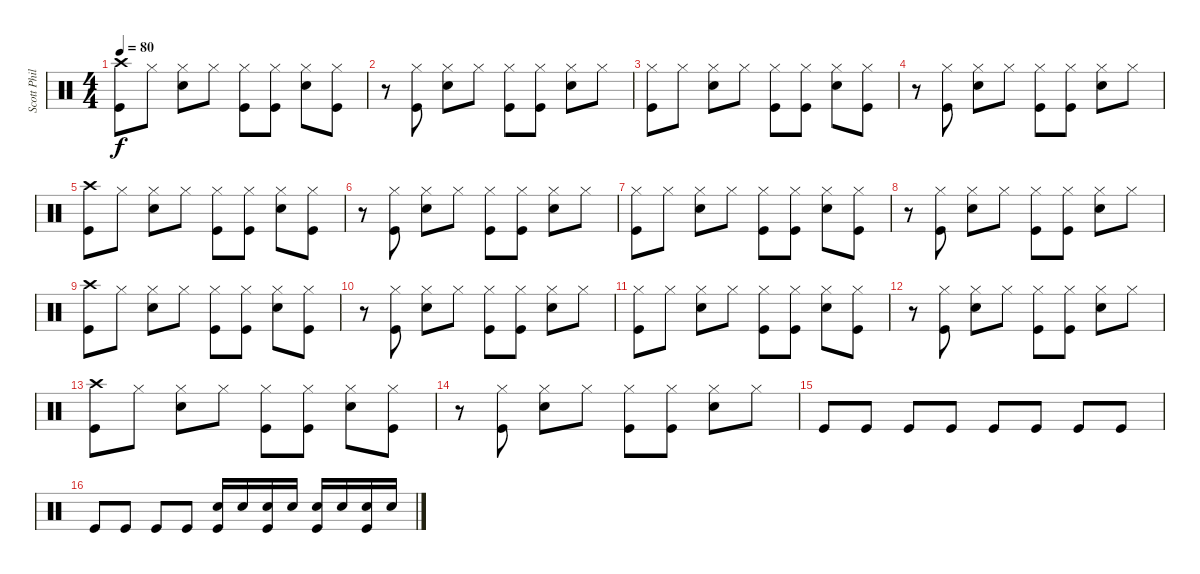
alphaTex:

\track ("Scott Phillips" "Scott Phil") {instrument percussion}
\staff {score}
\articulation defaults
\ts (4 4)
\tempo 80
\clef neutral
\ks c
("Crash high (hit)" "Kick (hit)").8{dy f} "Hi-Hat (closed)".8 ("Hi-Hat (closed)" "Snare (hit) 2").8 "Hi-Hat (closed)".8 ("Hi-Hat (closed)" "Kick (hit)").8 ("Hi-Hat (closed)" "Kick (hit)").8 ("Hi-Hat (closed)" "Snare (hit) 2").8 ("Hi-Hat (closed)" "Kick (hit)").8 |
r.8 ("Hi-Hat (closed)" "Kick (hit)").8 ("Hi-Hat (closed)" "Snare (hit) 2").8 "Hi-Hat (closed)".8 ("Hi-Hat (closed)" "Kick (hit)").8 ("Hi-Hat (closed)" "Kick (hit)").8 ("Hi-Hat (closed)" "Snare (hit) 2").8 "Hi-Hat (closed)".8 |
("Hi-Hat (closed)" "Kick (hit)").8 "Hi-Hat (closed)".8 ("Hi-Hat (closed)" "Snare (hit) 2").8 "Hi-Hat (closed)".8 ("Hi-Hat (closed)" "Kick (hit)").8 ("Hi-Hat (closed)" "Kick (hit)").8 ("Hi-Hat (closed)" "Snare (hit) 2").8 ("Hi-Hat (closed)" "Kick (hit)").8 |
r.8 ("Hi-Hat (closed)" "Kick (hit)").8 ("Hi-Hat (closed)" "Snare (hit) 2").8 "Hi-Hat (closed)".8 ("Hi-Hat (closed)" "Kick (hit)").8 ("Hi-Hat (closed)" "Kick (hit)").8 ("Hi-Hat (closed)" "Snare (hit) 2").8 "Hi-Hat (closed)".8 |
("Crash high (hit)" "Kick (hit)").8 "Hi-Hat (closed)".8 ("Hi-Hat (closed)" "Snare (hit) 2").8 "Hi-Hat (closed)".8 ("Hi-Hat (closed)" "Kick (hit)").8 ("Hi-Hat (closed)" "Kick (hit)").8 ("Hi-Hat (closed)" "Snare (hit) 2").8 ("Hi-Hat (closed)" "Kick (hit)").8 |
r.8 ("Hi-Hat (closed)" "Kick (hit)").8 ("Hi-Hat (closed)" "Snare (hit) 2").8 "Hi-Hat (closed)".8 ("Hi-Hat (closed)" "Kick (hit)").8 ("Hi-Hat (closed)" "Kick (hit)").8 ("Hi-Hat (closed)" "Snare (hit) 2").8 "Hi-Hat (closed)".8 |
("Hi-Hat (closed)" "Kick (hit)").8 "Hi-Hat (closed)".8 ("Hi-Hat (closed)" "Snare (hit) 2").8 "Hi-Hat (closed)".8 ("Hi-Hat (closed)" "Kick (hit)").8 ("Hi-Hat (closed)" "Kick (hit)").8 ("Hi-Hat (closed)" "Snare (hit) 2").8 ("Hi-Hat (closed)" "Kick (hit)").8 |
r.8 ("Hi-Hat (closed)" "Kick (hit)").8 ("Hi-Hat (closed)" "Snare (hit) 2").8 "Hi-Hat (closed)".8 ("Hi-Hat (closed)" "Kick (hit)").8 ("Hi-Hat (closed)" "Kick (hit)").8 ("Hi-Hat (closed)" "Snare (hit) 2").8 "Hi-Hat (closed)".8 |
("Crash high (hit)" "Kick (hit)").8 "Hi-Hat (closed)".8 ("Hi-Hat (closed)" "Snare (hit) 2").8 "Hi-Hat (closed)".8 ("Hi-Hat (closed)" "Kick (hit)").8 ("Hi-Hat (closed)" "Kick (hit)").8 ("Hi-Hat (closed)" "Snare (hit) 2").8 ("Hi-Hat (closed)" "Kick (hit)").8 |
r.8 ("Hi-Hat (closed)" "Kick (hit)").8 ("Hi-Hat (closed)" "Snare (hit) 2").8 "Hi-Hat (closed)".8 ("Hi-Hat (closed)" "Kick (hit)").8 ("Hi-Hat (closed)" "Kick (hit)").8 ("Hi-Hat (closed)" "Snare (hit) 2").8 "Hi-Hat (closed)".8 |
("Hi-Hat (closed)" "Kick (hit)").8 "Hi-Hat (closed)".8 ("Hi-Hat (closed)" "Snare (hit) 2").8 "Hi-Hat (closed)".8 ("Hi-Hat (closed)" "Kick (hit)").8 ("Hi-Hat (closed)" "Kick (hit)").8 ("Hi-Hat (closed)" "Snare (hit) 2").8 ("Hi-Hat (closed)" "Kick (hit)").8 |
r.8 ("Hi-Hat (closed)" "Kick (hit)").8 ("Hi-Hat (closed)" "Snare (hit) 2").8 "Hi-Hat (closed)".8 ("Hi-Hat (closed)" "Kick (hit)").8 ("Hi-Hat (closed)" "Kick (hit)").8 ("Hi-Hat (closed)" "Snare (hit) 2").8 "Hi-Hat (closed)".8 |
("Crash high (hit)" "Kick (hit)").8 "Hi-Hat (closed)".8 ("Hi-Hat (closed)" "Snare (hit) 2").8 "Hi-Hat (closed)".8 ("Hi-Hat (closed)" "Kick (hit)").8 ("Hi-Hat (closed)" "Kick (hit)").8 ("Hi-Hat (closed)" "Snare (hit) 2").8 ("Hi-Hat (closed)" "Kick (hit)").8 |
r.8 ("Hi-Hat (closed)" "Kick (hit)").8 ("Hi-Hat (closed)" "Snare (hit) 2").8 "Hi-Hat (closed)".8 ("Hi-Hat (closed)" "Kick (hit)").8 ("Hi-Hat (closed)" "Kick (hit)").8 ("Hi-Hat (closed)" "Snare (hit) 2").8 "Hi-Hat (closed)".8 |
"Kick (hit)".8 "Kick (hit)".8 "Kick (hit)".8 "Kick (hit)".8 "Kick (hit)".8 "Kick (hit)".8 "Kick (hit)".8 "Kick (hit)".8 |
"Kick (hit)".8 "Kick (hit)".8 "Kick (hit)".8 "Kick (hit)".8 ("Snare (hit) 2" "Kick (hit)").16 "Snare (hit) 2".16 ("Snare (hit) 2" "Kick (hit)").16 "Snare (hit) 2".16 ("Snare (hit) 2" "Kick (hit)").16 "Snare (hit) 2".16 ("Snare (hit) 2" "Kick (hit)").16 "Snare (hit) 2".16
